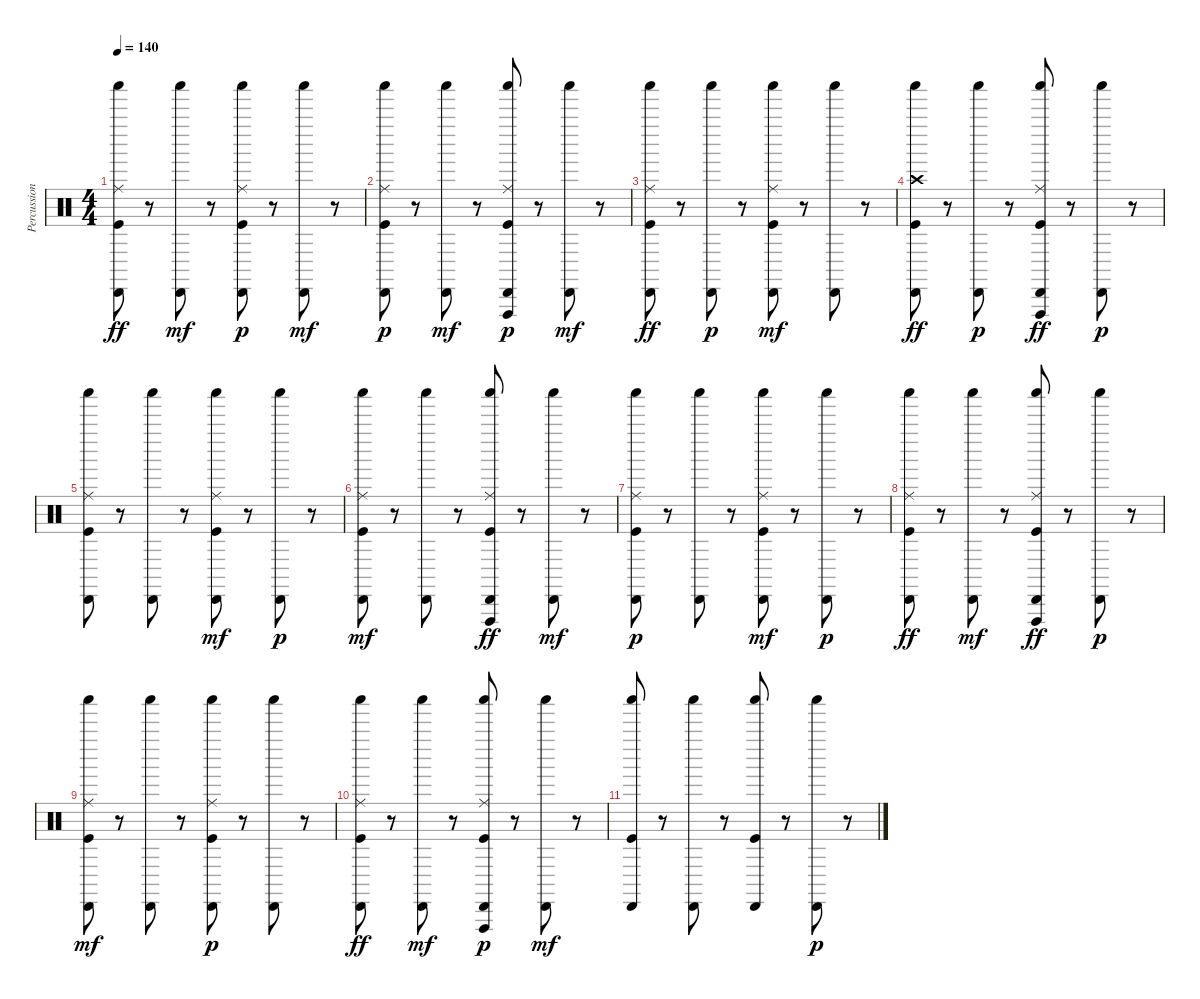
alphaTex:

\track ("Percussion Std Drums" "Percussion") {instrument percussion}
\staff {score}
\articulation defaults
\ts (4 4)
\tempo 140
\clef neutral
\ks c
("Kick (hit)" "Shaker (hit)" "Cabasa (hit)" "Ride (middle)").8{dy ff volume 12} r.8 ("Shaker (hit)" "Cabasa (hit)").8{dy mf volume 12} r.8 ("Cabasa (hit)" "Kick (hit)" "Ride (middle)" "Shaker (hit)").8{dy p volume 11} r.8 ("Shaker (hit)" "Cabasa (hit)").8{dy mf volume 11} r.8 |
("Ride (middle)" "Kick (hit)" "Cabasa (hit)" "Shaker (hit)").8{dy p volume 11} r.8 ("Shaker (hit)" "Cabasa (hit)").8{dy mf volume 10} r.8 ("Vibraslap (hit)" "Kick (hit)" "Ride (middle)" "Cabasa (hit)" "Shaker (hit)").8{dy p volume 10} r.8 ("Shaker (hit)" "Cabasa (hit)").8{dy mf volume 10} r.8 |
("Shaker (hit)" "Kick (hit)" "Cabasa (hit)" "Ride (middle)").8{dy ff volume 10} r.8 ("Cabasa (hit)" "Shaker (hit)").8{dy p volume 9} r.8 ("Shaker (hit)" "Ride (middle)" "Cabasa (hit)" "Kick (hit)").8{dy mf volume 9} r.8 ("Shaker (hit)" "Cabasa (hit)").8{volume 9} r.8 |
("Shaker (hit)" "Cabasa (hit)" "Kick (hit)" "Crash high (hit)").8{dy ff volume 9} r.8 ("Cabasa (hit)" "Shaker (hit)").8{dy p volume 8} r.8 ("Shaker (hit)" "Cabasa (hit)" "Ride (middle)" "Kick (hit)" "Vibraslap (hit)").8{dy ff volume 8} r.8 ("Cabasa (hit)" "Shaker (hit)").8{dy p volume 8} r.8 |
("Cabasa (hit)" "Ride (middle)" "Kick (hit)" "Shaker (hit)").8{volume 8} r.8 ("Cabasa (hit)" "Shaker (hit)").8{volume 7} r.8 ("Shaker (hit)" "Ride (middle)" "Kick (hit)" "Cabasa (hit)").8{dy mf volume 7} r.8 ("Cabasa (hit)" "Shaker (hit)").8{dy p volume 7} r.8 |
("Shaker (hit)" "Kick (hit)" "Ride (middle)" "Cabasa (hit)").8{dy mf volume 6} r.8 ("Shaker (hit)" "Cabasa (hit)").8{volume 6} r.8 ("Cabasa (hit)" "Shaker (hit)" "Kick (hit)" "Vibraslap (hit)" "Ride (middle)").8{dy ff volume 6} r.8 ("Shaker (hit)" "Cabasa (hit)").8{dy mf volume 6} r.8 |
("Ride (middle)" "Cabasa (hit)" "Kick (hit)" "Shaker (hit)").8{dy p volume 5} r.8 ("Cabasa (hit)" "Shaker (hit)").8{volume 5} r.8 ("Ride (middle)" "Shaker (hit)" "Cabasa (hit)" "Kick (hit)").8{dy mf volume 5} r.8 ("Cabasa (hit)" "Shaker (hit)").8{dy p volume 5} r.8 |
("Kick (hit)" "Cabasa (hit)" "Shaker (hit)" "Ride (middle)").8{dy ff volume 4} r.8 ("Shaker (hit)" "Cabasa (hit)").8{dy mf volume 4} r.8 ("Cabasa (hit)" "Kick (hit)" "Vibraslap (hit)" "Shaker (hit)" "Ride (middle)").8{dy ff volume 4} r.8 ("Cabasa (hit)" "Shaker (hit)").8{dy p volume 3} r.8 |
("Shaker (hit)" "Kick (hit)" "Ride (middle)" "Cabasa (hit)").8{dy mf volume 3} r.8 ("Shaker (hit)" "Cabasa (hit)").8{volume 3} r.8 ("Cabasa (hit)" "Ride (middle)" "Kick (hit)" "Shaker (hit)").8{dy p volume 3} r.8 ("Cabasa (hit)" "Shaker (hit)").8{volume 2} r.8 |
("Cabasa (hit)" "Kick (hit)" "Shaker (hit)" "Ride (middle)").8{dy ff volume 2} r.8 ("Shaker (hit)" "Cabasa (hit)").8{dy mf volume 2} r.8 ("Ride (middle)" "Kick (hit)" "Cabasa (hit)" "Vibraslap (hit)" "Shaker (hit)").8{dy p volume 2} r.8 ("Shaker (hit)" "Cabasa (hit)").8{dy mf volume 1} r.8 |
("Kick (hit)" "Shaker (hit)" "Cabasa (hit)").8{volume 1} r.8 ("Shaker (hit)" "Cabasa (hit)").8{volume 1} r.8 ("Shaker (hit)" "Kick (hit)" "Cabasa (hit)").8{volume 0} r.8 ("Cabasa (hit)" "Shaker (hit)").8{dy p volume 0} r.8
